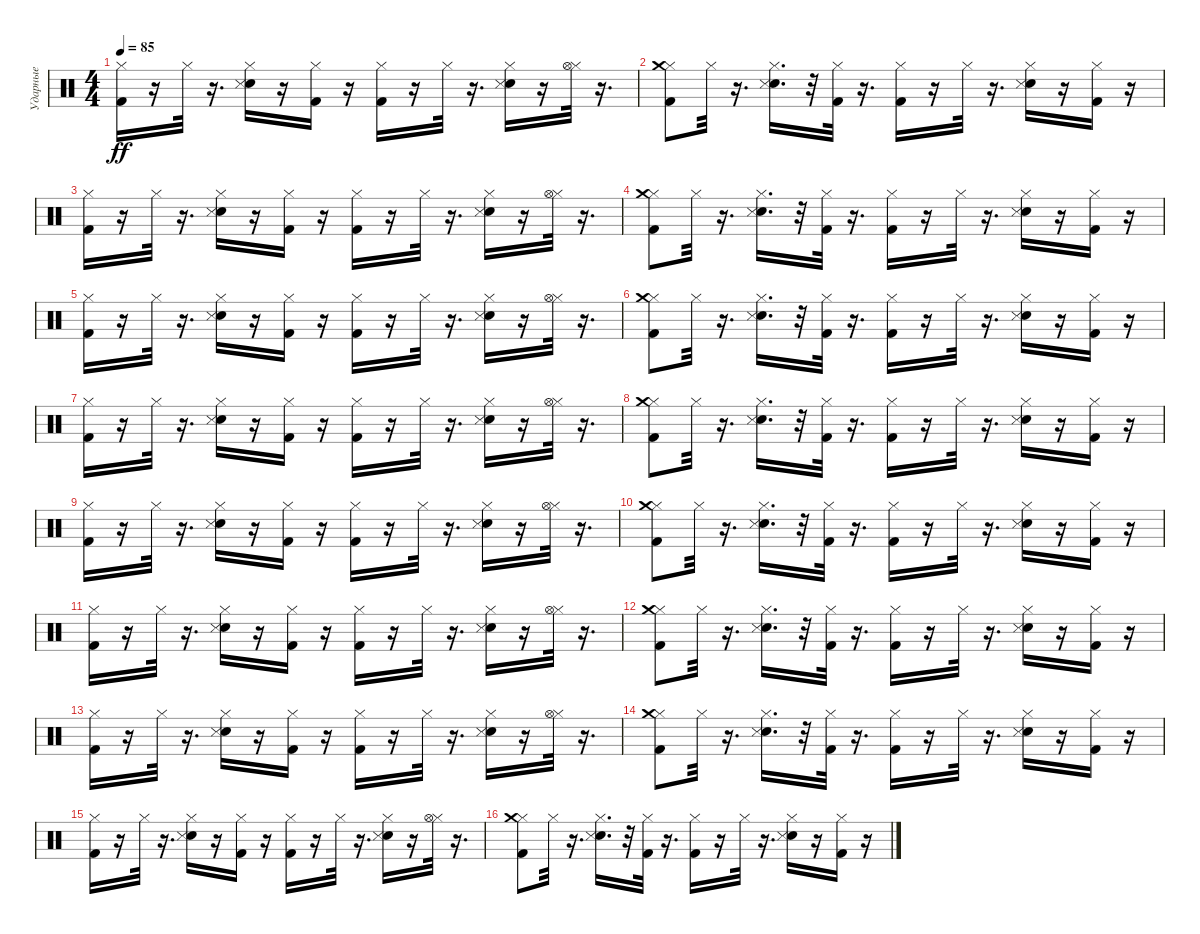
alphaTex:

\track ("Ударные" "Ударные") {instrument percussion}
\staff {score}
\articulation defaults
\ts (4 4)
\tempo 85
\clef neutral
\ks c
("Hi-Hat (closed)" "Kick (hit) 2").16{dy ff} r.16 "Hi-Hat (closed)".32 r.16{d} ("Electric Snare (hit)" "Hi-Hat (closed)" "Snare (side stick) 3").16 r.16 ("Kick (hit) 2" "Hi-Hat (closed)").16 r.16 ("Kick (hit) 2" "Hi-Hat (closed)").16 r.16 "Hi-Hat (closed)".32 r.16{d} ("Electric Snare (hit)" "Hi-Hat (closed)" "Snare (side stick) 3").16 r.16 ("Hi-Hat (closed)" "Hi-Hat (open)").32 r.16{d} |
("Kick (hit) 2" "Hi-Hat (closed)" "Crash medium (hit)").8 "Hi-Hat (closed)".32 r.16{d} ("Electric Snare (hit)" "Hi-Hat (closed)" "Snare (side stick) 3").16{d} r.32 ("Kick (hit) 2" "Hi-Hat (closed)").32 r.16{d} ("Kick (hit) 2" "Hi-Hat (closed)").16 r.16 "Hi-Hat (closed)".32 r.16{d} ("Electric Snare (hit)" "Hi-Hat (closed)" "Snare (side stick) 3").16 r.16 ("Kick (hit) 2" "Hi-Hat (closed)").16 r.16 |
("Hi-Hat (closed)" "Kick (hit) 2").16 r.16 "Hi-Hat (closed)".32 r.16{d} ("Electric Snare (hit)" "Hi-Hat (closed)" "Snare (side stick) 3").16 r.16 ("Kick (hit) 2" "Hi-Hat (closed)").16 r.16 ("Kick (hit) 2" "Hi-Hat (closed)").16 r.16 "Hi-Hat (closed)".32 r.16{d} ("Electric Snare (hit)" "Hi-Hat (closed)" "Snare (side stick) 3").16 r.16 ("Hi-Hat (closed)" "Hi-Hat (open)").32 r.16{d} |
("Kick (hit) 2" "Hi-Hat (closed)" "Crash medium (hit)").8 "Hi-Hat (closed)".32 r.16{d} ("Electric Snare (hit)" "Hi-Hat (closed)" "Snare (side stick) 3").16{d} r.32 ("Kick (hit) 2" "Hi-Hat (closed)").32 r.16{d} ("Kick (hit) 2" "Hi-Hat (closed)").16 r.16 "Hi-Hat (closed)".32 r.16{d} ("Electric Snare (hit)" "Hi-Hat (closed)" "Snare (side stick) 3").16 r.16 ("Kick (hit) 2" "Hi-Hat (closed)").16 r.16 |
("Hi-Hat (closed)" "Kick (hit) 2").16 r.16 "Hi-Hat (closed)".32 r.16{d} ("Electric Snare (hit)" "Hi-Hat (closed)" "Snare (side stick) 3").16 r.16 ("Kick (hit) 2" "Hi-Hat (closed)").16 r.16 ("Kick (hit) 2" "Hi-Hat (closed)").16 r.16 "Hi-Hat (closed)".32 r.16{d} ("Electric Snare (hit)" "Hi-Hat (closed)" "Snare (side stick) 3").16 r.16 ("Hi-Hat (closed)" "Hi-Hat (open)").32 r.16{d} |
("Kick (hit) 2" "Hi-Hat (closed)" "Crash medium (hit)").8 "Hi-Hat (closed)".32 r.16{d} ("Electric Snare (hit)" "Hi-Hat (closed)" "Snare (side stick) 3").16{d} r.32 ("Kick (hit) 2" "Hi-Hat (closed)").32 r.16{d} ("Kick (hit) 2" "Hi-Hat (closed)").16 r.16 "Hi-Hat (closed)".32 r.16{d} ("Electric Snare (hit)" "Hi-Hat (closed)" "Snare (side stick) 3").16 r.16 ("Kick (hit) 2" "Hi-Hat (closed)").16 r.16 |
("Hi-Hat (closed)" "Kick (hit) 2").16 r.16 "Hi-Hat (closed)".32 r.16{d} ("Electric Snare (hit)" "Hi-Hat (closed)" "Snare (side stick) 3").16 r.16 ("Kick (hit) 2" "Hi-Hat (closed)").16 r.16 ("Kick (hit) 2" "Hi-Hat (closed)").16 r.16 "Hi-Hat (closed)".32 r.16{d} ("Electric Snare (hit)" "Hi-Hat (closed)" "Snare (side stick) 3").16 r.16 ("Hi-Hat (closed)" "Hi-Hat (open)").32 r.16{d} |
("Kick (hit) 2" "Hi-Hat (closed)" "Crash medium (hit)").8 "Hi-Hat (closed)".32 r.16{d} ("Electric Snare (hit)" "Hi-Hat (closed)" "Snare (side stick) 3").16{d} r.32 ("Kick (hit) 2" "Hi-Hat (closed)").32 r.16{d} ("Kick (hit) 2" "Hi-Hat (closed)").16 r.16 "Hi-Hat (closed)".32 r.16{d} ("Electric Snare (hit)" "Hi-Hat (closed)" "Snare (side stick) 3").16 r.16 ("Kick (hit) 2" "Hi-Hat (closed)").16 r.16 |
("Hi-Hat (closed)" "Kick (hit) 2").16 r.16 "Hi-Hat (closed)".32 r.16{d} ("Electric Snare (hit)" "Hi-Hat (closed)" "Snare (side stick) 3").16 r.16 ("Kick (hit) 2" "Hi-Hat (closed)").16 r.16 ("Kick (hit) 2" "Hi-Hat (closed)").16 r.16 "Hi-Hat (closed)".32 r.16{d} ("Electric Snare (hit)" "Hi-Hat (closed)" "Snare (side stick) 3").16 r.16 ("Hi-Hat (closed)" "Hi-Hat (open)").32 r.16{d} |
("Kick (hit) 2" "Hi-Hat (closed)" "Crash medium (hit)").8 "Hi-Hat (closed)".32 r.16{d} ("Electric Snare (hit)" "Hi-Hat (closed)" "Snare (side stick) 3").16{d} r.32 ("Kick (hit) 2" "Hi-Hat (closed)").32 r.16{d} ("Kick (hit) 2" "Hi-Hat (closed)").16 r.16 "Hi-Hat (closed)".32 r.16{d} ("Electric Snare (hit)" "Hi-Hat (closed)" "Snare (side stick) 3").16 r.16 ("Kick (hit) 2" "Hi-Hat (closed)").16 r.16 |
("Hi-Hat (closed)" "Kick (hit) 2").16 r.16 "Hi-Hat (closed)".32 r.16{d} ("Electric Snare (hit)" "Hi-Hat (closed)" "Snare (side stick) 3").16 r.16 ("Kick (hit) 2" "Hi-Hat (closed)").16 r.16 ("Kick (hit) 2" "Hi-Hat (closed)").16 r.16 "Hi-Hat (closed)".32 r.16{d} ("Electric Snare (hit)" "Hi-Hat (closed)" "Snare (side stick) 3").16 r.16 ("Hi-Hat (closed)" "Hi-Hat (open)").32 r.16{d} |
("Kick (hit) 2" "Hi-Hat (closed)" "Crash medium (hit)").8 "Hi-Hat (closed)".32 r.16{d} ("Electric Snare (hit)" "Hi-Hat (closed)" "Snare (side stick) 3").16{d} r.32 ("Kick (hit) 2" "Hi-Hat (closed)").32 r.16{d} ("Kick (hit) 2" "Hi-Hat (closed)").16 r.16 "Hi-Hat (closed)".32 r.16{d} ("Electric Snare (hit)" "Hi-Hat (closed)" "Snare (side stick) 3").16 r.16 ("Kick (hit) 2" "Hi-Hat (closed)").16 r.16 |
("Hi-Hat (closed)" "Kick (hit) 2").16 r.16 "Hi-Hat (closed)".32 r.16{d} ("Electric Snare (hit)" "Hi-Hat (closed)" "Snare (side stick) 3").16 r.16 ("Kick (hit) 2" "Hi-Hat (closed)").16 r.16 ("Kick (hit) 2" "Hi-Hat (closed)").16 r.16 "Hi-Hat (closed)".32 r.16{d} ("Electric Snare (hit)" "Hi-Hat (closed)" "Snare (side stick) 3").16 r.16 ("Hi-Hat (closed)" "Hi-Hat (open)").32 r.16{d} |
("Kick (hit) 2" "Hi-Hat (closed)" "Crash medium (hit)").8 "Hi-Hat (closed)".32 r.16{d} ("Electric Snare (hit)" "Hi-Hat (closed)" "Snare (side stick) 3").16{d} r.32 ("Kick (hit) 2" "Hi-Hat (closed)").32 r.16{d} ("Kick (hit) 2" "Hi-Hat (closed)").16 r.16 "Hi-Hat (closed)".32 r.16{d} ("Electric Snare (hit)" "Hi-Hat (closed)" "Snare (side stick) 3").16 r.16 ("Kick (hit) 2" "Hi-Hat (closed)").16 r.16 |
("Hi-Hat (closed)" "Kick (hit) 2").16 r.16 "Hi-Hat (closed)".32 r.16{d} ("Electric Snare (hit)" "Hi-Hat (closed)" "Snare (side stick) 3").16 r.16 ("Kick (hit) 2" "Hi-Hat (closed)").16 r.16 ("Kick (hit) 2" "Hi-Hat (closed)").16 r.16 "Hi-Hat (closed)".32 r.16{d} ("Electric Snare (hit)" "Hi-Hat (closed)" "Snare (side stick) 3").16 r.16 ("Hi-Hat (closed)" "Hi-Hat (open)").32 r.16{d} |
("Kick (hit) 2" "Hi-Hat (closed)" "Crash medium (hit)").8 "Hi-Hat (closed)".32 r.16{d} ("Electric Snare (hit)" "Hi-Hat (closed)" "Snare (side stick) 3").16{d} r.32 ("Kick (hit) 2" "Hi-Hat (closed)").32 r.16{d} ("Kick (hit) 2" "Hi-Hat (closed)").16 r.16 "Hi-Hat (closed)".32 r.16{d} ("Electric Snare (hit)" "Hi-Hat (closed)" "Snare (side stick) 3").16 r.16 ("Kick (hit) 2" "Hi-Hat (closed)").16 r.16
